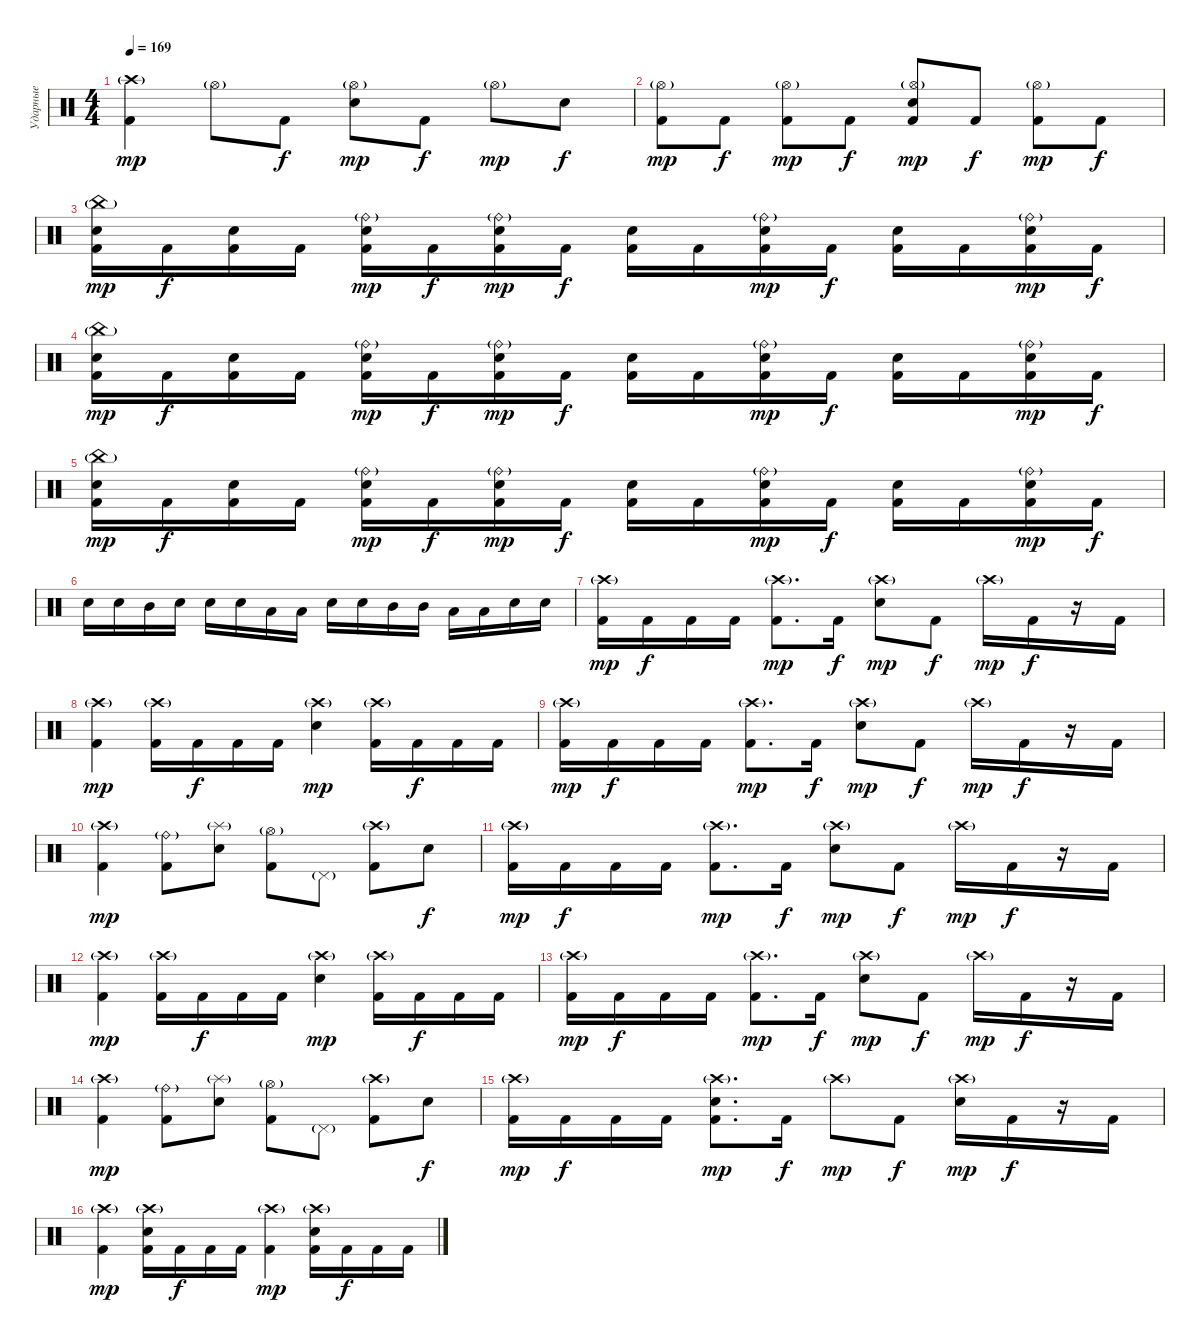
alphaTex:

\track ("Ударные" "Ударные") {instrument percussion}
\staff {score}
\articulation defaults
\ts (4 4)
\tempo 169
\clef neutral
\ks c
("Crash high (hit)"{g} "Kick (hit) 2").4{dy mp} "Hi-Hat (open)"{g}.8 "Kick (hit) 2".8{dy f} ("Hi-Hat (open)"{g} "Electric Snare (hit)").8{dy mp} "Kick (hit) 2".8{dy f} "Hi-Hat (open)"{g}.8{dy mp} "Electric Snare (hit)".8{dy f} |
("Hi-Hat (open)"{g} "Kick (hit) 2").8{dy mp} "Kick (hit) 2".8{dy f} ("Hi-Hat (open)"{g} "Kick (hit) 2").8{dy mp} "Kick (hit) 2".8{dy f} ("Hi-Hat (open)"{g} "Electric Snare (hit)" "Kick (hit) 2").8{dy mp} "Kick (hit) 2".8{dy f} ("Hi-Hat (open)"{g} "Kick (hit) 2").8{dy mp} "Kick (hit) 2".8{dy f} |
("China (hit)"{g} "Electric Snare (hit)" "Kick (hit) 2").16{dy mp} "Kick (hit) 2".16{dy f} ("Electric Snare (hit)" "Kick (hit) 2").16 "Kick (hit) 2".16 ("Ride (bell)"{g} "Electric Snare (hit)" "Kick (hit) 2").16{dy mp} "Kick (hit) 2".16{dy f} ("Ride (bell)"{g} "Electric Snare (hit)" "Kick (hit) 2").16{dy mp} "Kick (hit) 2".16{dy f} ("Electric Snare (hit)" "Kick (hit) 2").16 "Kick (hit) 2".16 ("Ride (bell)"{g} "Electric Snare (hit)" "Kick (hit) 2").16{dy mp} "Kick (hit) 2".16{dy f} ("Electric Snare (hit)" "Kick (hit) 2").16 "Kick (hit) 2".16 ("Ride (bell)"{g} "Electric Snare (hit)" "Kick (hit) 2").16{dy mp} "Kick (hit) 2".16{dy f} |
("China (hit)"{g} "Electric Snare (hit)" "Kick (hit) 2").16{dy mp} "Kick (hit) 2".16{dy f} ("Electric Snare (hit)" "Kick (hit) 2").16 "Kick (hit) 2".16 ("Ride (bell)"{g} "Electric Snare (hit)" "Kick (hit) 2").16{dy mp} "Kick (hit) 2".16{dy f} ("Ride (bell)"{g} "Electric Snare (hit)" "Kick (hit) 2").16{dy mp} "Kick (hit) 2".16{dy f} ("Electric Snare (hit)" "Kick (hit) 2").16 "Kick (hit) 2".16 ("Ride (bell)"{g} "Electric Snare (hit)" "Kick (hit) 2").16{dy mp} "Kick (hit) 2".16{dy f} ("Electric Snare (hit)" "Kick (hit) 2").16 "Kick (hit) 2".16 ("Ride (bell)"{g} "Electric Snare (hit)" "Kick (hit) 2").16{dy mp} "Kick (hit) 2".16{dy f} |
("China (hit)"{g} "Electric Snare (hit)" "Kick (hit) 2").16{dy mp} "Kick (hit) 2".16{dy f} ("Electric Snare (hit)" "Kick (hit) 2").16 "Kick (hit) 2".16 ("Ride (bell)"{g} "Electric Snare (hit)" "Kick (hit) 2").16{dy mp} "Kick (hit) 2".16{dy f} ("Ride (bell)"{g} "Electric Snare (hit)" "Kick (hit) 2").16{dy mp} "Kick (hit) 2".16{dy f} ("Electric Snare (hit)" "Kick (hit) 2").16 "Kick (hit) 2".16 ("Ride (bell)"{g} "Electric Snare (hit)" "Kick (hit) 2").16{dy mp} "Kick (hit) 2".16{dy f} ("Electric Snare (hit)" "Kick (hit) 2").16 "Kick (hit) 2".16 ("Ride (bell)"{g} "Electric Snare (hit)" "Kick (hit) 2").16{dy mp} "Kick (hit) 2".16{dy f} |
"Electric Snare (hit)".16 "Electric Snare (hit)".16 "Mid Tom (hit)".16 "Electric Snare (hit)".16 "Electric Snare (hit)".16 "Electric Snare (hit)".16 "Low Tom (hit)".16 "Low Tom (hit)".16 "Electric Snare (hit)".16 "Electric Snare (hit)".16 "Mid Tom (hit)".16 "Mid Tom (hit)".16 "Low Tom (hit)".16 "Low Tom (hit)".16 "Electric Snare (hit)".16 "Electric Snare (hit)".16 |
("Crash high (hit)"{g} "Kick (hit) 2").16{dy mp} "Kick (hit) 2".16{dy f} "Kick (hit) 2".16 "Kick (hit) 2".16 ("Crash high (hit)"{g} "Kick (hit) 2").8{d dy mp} "Kick (hit) 2".16{dy f} ("Crash high (hit)"{g} "Electric Snare (hit)").8{dy mp} "Kick (hit) 2".8{dy f} "Crash high (hit)"{g}.16{dy mp} "Kick (hit) 2".16{dy f} r.16 "Kick (hit) 2".16 |
("Crash high (hit)"{g} "Kick (hit) 2").4{dy mp} ("Crash high (hit)"{g} "Kick (hit) 2").16 "Kick (hit) 2".16{dy f} "Kick (hit) 2".16 "Kick (hit) 2".16 ("Crash high (hit)"{g} "Electric Snare (hit)").4{dy mp} ("Crash high (hit)"{g} "Kick (hit) 2").16 "Kick (hit) 2".16{dy f} "Kick (hit) 2".16 "Kick (hit) 2".16 |
("Crash high (hit)"{g} "Kick (hit) 2").16{dy mp} "Kick (hit) 2".16{dy f} "Kick (hit) 2".16 "Kick (hit) 2".16 ("Crash high (hit)"{g} "Kick (hit) 2").8{d dy mp} "Kick (hit) 2".16{dy f} ("Crash high (hit)"{g} "Electric Snare (hit)").8{dy mp} "Kick (hit) 2".8{dy f} "Crash high (hit)"{g}.16{dy mp} "Kick (hit) 2".16{dy f} r.16 "Kick (hit) 2".16 |
("Crash high (hit)"{g} "Kick (hit) 2").4{dy mp} ("Ride (bell)"{g} "Kick (hit) 2").8 ("Splash (hit)"{g} "Electric Snare (hit)").8 ("Hi-Hat (open)"{g} "Kick (hit) 2").8 "Pedal Hi-Hat (hit)"{g}.8 ("Crash high (hit)"{g} "Kick (hit) 2").8 "Electric Snare (hit)".8{dy f} |
("Crash high (hit)"{g} "Kick (hit) 2").16{dy mp} "Kick (hit) 2".16{dy f} "Kick (hit) 2".16 "Kick (hit) 2".16 ("Crash high (hit)"{g} "Kick (hit) 2").8{d dy mp} "Kick (hit) 2".16{dy f} ("Crash high (hit)"{g} "Electric Snare (hit)").8{dy mp} "Kick (hit) 2".8{dy f} "Crash high (hit)"{g}.16{dy mp} "Kick (hit) 2".16{dy f} r.16 "Kick (hit) 2".16 |
("Crash high (hit)"{g} "Kick (hit) 2").4{dy mp} ("Crash high (hit)"{g} "Kick (hit) 2").16 "Kick (hit) 2".16{dy f} "Kick (hit) 2".16 "Kick (hit) 2".16 ("Crash high (hit)"{g} "Electric Snare (hit)").4{dy mp} ("Crash high (hit)"{g} "Kick (hit) 2").16 "Kick (hit) 2".16{dy f} "Kick (hit) 2".16 "Kick (hit) 2".16 |
("Crash high (hit)"{g} "Kick (hit) 2").16{dy mp} "Kick (hit) 2".16{dy f} "Kick (hit) 2".16 "Kick (hit) 2".16 ("Crash high (hit)"{g} "Kick (hit) 2").8{d dy mp} "Kick (hit) 2".16{dy f} ("Crash high (hit)"{g} "Electric Snare (hit)").8{dy mp} "Kick (hit) 2".8{dy f} "Crash high (hit)"{g}.16{dy mp} "Kick (hit) 2".16{dy f} r.16 "Kick (hit) 2".16 |
("Crash high (hit)"{g} "Kick (hit) 2").4{dy mp} ("Ride (bell)"{g} "Kick (hit) 2").8 ("Splash (hit)"{g} "Electric Snare (hit)").8 ("Hi-Hat (open)"{g} "Kick (hit) 2").8 "Pedal Hi-Hat (hit)"{g}.8 ("Crash high (hit)"{g} "Kick (hit) 2").8 "Electric Snare (hit)".8{dy f} |
("Crash high (hit)"{g} "Kick (hit) 2").16{dy mp} "Kick (hit) 2".16{dy f} "Kick (hit) 2".16 "Kick (hit) 2".16 ("Crash high (hit)"{g} "Electric Snare (hit)" "Kick (hit) 2").8{d dy mp} "Kick (hit) 2".16{dy f} "Crash high (hit)"{g}.8{dy mp} "Kick (hit) 2".8{dy f} ("Crash high (hit)"{g} "Electric Snare (hit)").16{dy mp} "Kick (hit) 2".16{dy f} r.16 "Kick (hit) 2".16 |
("Crash high (hit)"{g} "Kick (hit) 2").4{dy mp} ("Crash high (hit)"{g} "Electric Snare (hit)" "Kick (hit) 2").16 "Kick (hit) 2".16{dy f} "Kick (hit) 2".16 "Kick (hit) 2".16 ("Crash high (hit)"{g} "Kick (hit) 2").4{dy mp} ("Crash high (hit)"{g} "Electric Snare (hit)" "Kick (hit) 2").16 "Kick (hit) 2".16{dy f} "Kick (hit) 2".16 "Kick (hit) 2".16
